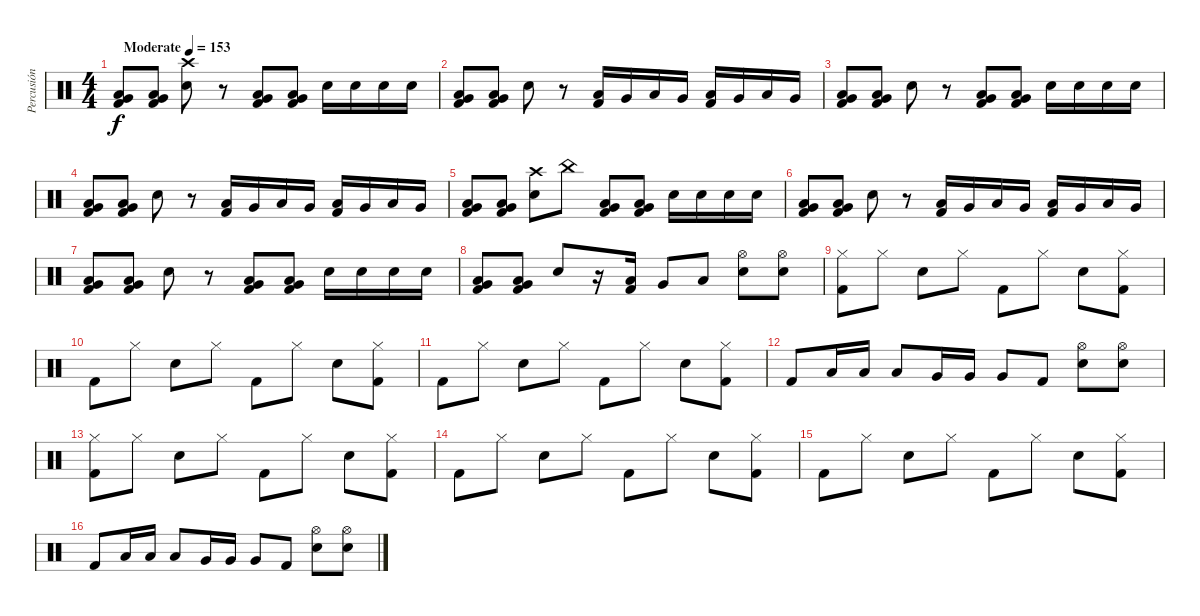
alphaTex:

\track ("Percusión" "Percusión") {instrument percussion}
\staff {score}
\articulation defaults
\ts (4 4)
\tempo (153 "Moderate")
\clef neutral
\ks c
("Kick (hit) 2" "Low Floor Tom (hit)" "Very Low Tom (hit)").8{dy f} ("Kick (hit) 2" "Low Floor Tom (hit)" "Very Low Tom (hit)").8 ("Crash high (hit)" "Electric Snare (hit)").8 r.8 ("Kick (hit) 2" "Low Floor Tom (hit)" "Very Low Tom (hit)").8 ("Kick (hit) 2" "Low Floor Tom (hit)" "Very Low Tom (hit)").8 "Electric Snare (hit)".16 "Electric Snare (hit)".16 "Electric Snare (hit)".16 "Electric Snare (hit)".16 |
("Kick (hit) 2" "Low Floor Tom (hit)" "Very Low Tom (hit)").8 ("Kick (hit) 2" "Low Floor Tom (hit)" "Very Low Tom (hit)").8 "Electric Snare (hit)".8 r.8 ("Low Floor Tom (hit)" "Kick (hit) 2").16 "Very Low Tom (hit)".16 "Low Floor Tom (hit)".16 "Very Low Tom (hit)".16 ("Low Floor Tom (hit)" "Kick (hit) 2").16 "Very Low Tom (hit)".16 "Low Floor Tom (hit)".16 "Very Low Tom (hit)".16 |
("Kick (hit) 2" "Low Floor Tom (hit)" "Very Low Tom (hit)").8 ("Kick (hit) 2" "Low Floor Tom (hit)" "Very Low Tom (hit)").8 "Electric Snare (hit)".8 r.8 ("Kick (hit) 2" "Low Floor Tom (hit)" "Very Low Tom (hit)").8 ("Kick (hit) 2" "Low Floor Tom (hit)" "Very Low Tom (hit)").8 "Electric Snare (hit)".16 "Electric Snare (hit)".16 "Electric Snare (hit)".16 "Electric Snare (hit)".16 |
("Kick (hit) 2" "Low Floor Tom (hit)" "Very Low Tom (hit)").8 ("Kick (hit) 2" "Low Floor Tom (hit)" "Very Low Tom (hit)").8 "Electric Snare (hit)".8 r.8 ("Low Floor Tom (hit)" "Kick (hit) 2").16 "Very Low Tom (hit)".16 "Low Floor Tom (hit)".16 "Very Low Tom (hit)".16 ("Low Floor Tom (hit)" "Kick (hit) 2").16 "Very Low Tom (hit)".16 "Low Floor Tom (hit)".16 "Very Low Tom (hit)".16 |
("Kick (hit) 2" "Low Floor Tom (hit)" "Very Low Tom (hit)").8 ("Kick (hit) 2" "Low Floor Tom (hit)" "Very Low Tom (hit)").8 ("Crash high (hit)" "Electric Snare (hit)").8 "China (hit)".8 ("Kick (hit) 2" "Low Floor Tom (hit)" "Very Low Tom (hit)").8 ("Kick (hit) 2" "Low Floor Tom (hit)" "Very Low Tom (hit)").8 "Electric Snare (hit)".16 "Electric Snare (hit)".16 "Electric Snare (hit)".16 "Electric Snare (hit)".16 |
("Kick (hit) 2" "Low Floor Tom (hit)" "Very Low Tom (hit)").8 ("Kick (hit) 2" "Low Floor Tom (hit)" "Very Low Tom (hit)").8 "Electric Snare (hit)".8 r.8 ("Low Floor Tom (hit)" "Kick (hit) 2").16 "Very Low Tom (hit)".16 "Low Floor Tom (hit)".16 "Very Low Tom (hit)".16 ("Low Floor Tom (hit)" "Kick (hit) 2").16 "Very Low Tom (hit)".16 "Low Floor Tom (hit)".16 "Very Low Tom (hit)".16 |
("Kick (hit) 2" "Low Floor Tom (hit)" "Very Low Tom (hit)").8 ("Kick (hit) 2" "Low Floor Tom (hit)" "Very Low Tom (hit)").8 "Electric Snare (hit)".8 r.8 ("Kick (hit) 2" "Low Floor Tom (hit)" "Very Low Tom (hit)").8 ("Kick (hit) 2" "Low Floor Tom (hit)" "Very Low Tom (hit)").8 "Electric Snare (hit)".16 "Electric Snare (hit)".16 "Electric Snare (hit)".16 "Electric Snare (hit)".16 |
("Kick (hit) 2" "Low Floor Tom (hit)" "Very Low Tom (hit)").8 ("Kick (hit) 2" "Low Floor Tom (hit)" "Very Low Tom (hit)").8 "Electric Snare (hit)".8 r.16 ("Low Floor Tom (hit)" "Kick (hit) 2").16 "Very Low Tom (hit)".8 "Low Floor Tom (hit)".8 ("Hi-Hat (open)" "Electric Snare (hit)").8 ("Hi-Hat (open)" "Electric Snare (hit)").8 |
("Hi-Hat (closed)" "Kick (hit) 2").8 "Hi-Hat (closed)".8 "Electric Snare (hit)".8 "Hi-Hat (closed)".8 "Kick (hit) 2".8 "Hi-Hat (closed)".8 "Electric Snare (hit)".8 ("Hi-Hat (closed)" "Kick (hit) 2").8 |
"Kick (hit) 2".8 "Hi-Hat (closed)".8 "Electric Snare (hit)".8 "Hi-Hat (closed)".8 "Kick (hit) 2".8 "Hi-Hat (closed)".8 "Electric Snare (hit)".8 ("Hi-Hat (closed)" "Kick (hit) 2").8 |
"Kick (hit) 2".8 "Hi-Hat (closed)".8 "Electric Snare (hit)".8 "Hi-Hat (closed)".8 "Kick (hit) 2".8 "Hi-Hat (closed)".8 "Electric Snare (hit)".8 ("Hi-Hat (closed)" "Kick (hit) 2").8 |
"Kick (hit) 2".8 "Low Tom (hit)".16 "Low Tom (hit)".16 "Low Tom (hit)".8 "Very Low Tom (hit)".16 "Very Low Tom (hit)".16 "Very Low Tom (hit)".8 "Kick (hit) 2".8 ("Hi-Hat (open)" "Electric Snare (hit)").8 ("Hi-Hat (open)" "Electric Snare (hit)").8 |
("Hi-Hat (closed)" "Kick (hit) 2").8 "Hi-Hat (closed)".8 "Electric Snare (hit)".8 "Hi-Hat (closed)".8 "Kick (hit) 2".8 "Hi-Hat (closed)".8 "Electric Snare (hit)".8 ("Hi-Hat (closed)" "Kick (hit) 2").8 |
"Kick (hit) 2".8 "Hi-Hat (closed)".8 "Electric Snare (hit)".8 "Hi-Hat (closed)".8 "Kick (hit) 2".8 "Hi-Hat (closed)".8 "Electric Snare (hit)".8 ("Hi-Hat (closed)" "Kick (hit) 2").8 |
"Kick (hit) 2".8 "Hi-Hat (closed)".8 "Electric Snare (hit)".8 "Hi-Hat (closed)".8 "Kick (hit) 2".8 "Hi-Hat (closed)".8 "Electric Snare (hit)".8 ("Hi-Hat (closed)" "Kick (hit) 2").8 |
"Kick (hit) 2".8 "Low Tom (hit)".16 "Low Tom (hit)".16 "Low Tom (hit)".8 "Very Low Tom (hit)".16 "Very Low Tom (hit)".16 "Very Low Tom (hit)".8 "Kick (hit) 2".8 ("Hi-Hat (open)" "Electric Snare (hit)").8 ("Hi-Hat (open)" "Electric Snare (hit)").8
